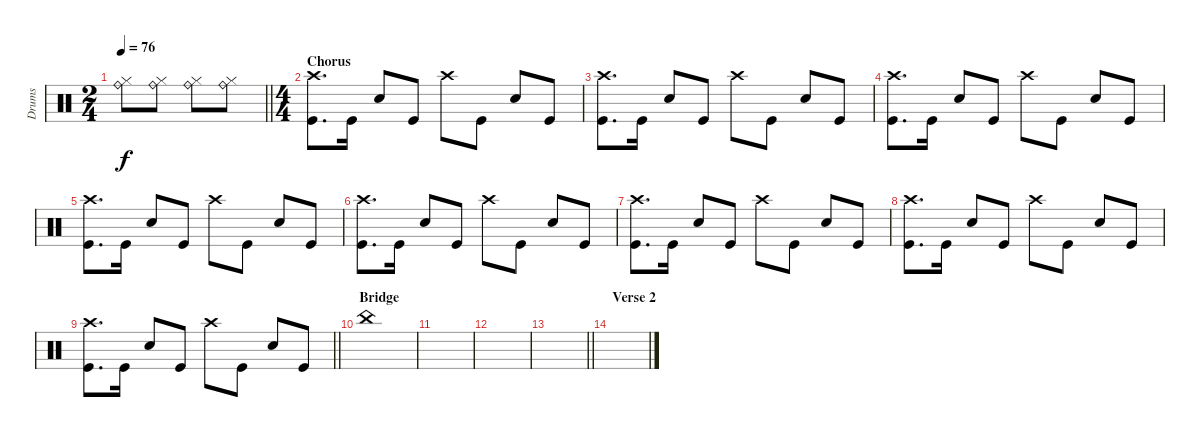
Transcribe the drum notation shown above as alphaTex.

\track ("Drums" "Drums") {instrument percussion}
\staff {score}
\articulation defaults
\ts (2 4)
\tempo 76
\clef neutral
\barLineRight lightlight
\ks c
("Ride (bell)" "Hi-Hat (closed)").8{dy f} ("Ride (bell)" "Hi-Hat (closed)").8 ("Ride (bell)" "Hi-Hat (closed)").8 ("Ride (bell)" "Hi-Hat (closed)").8 |
\ts (4 4)
\section ("" "Chorus")
("Crash high (hit)" "Kick (hit)").8{d} "Kick (hit)".16 "Snare (hit) 2".8 "Kick (hit)".8 "Crash high (hit)".8 "Kick (hit)".8 "Snare (hit) 2".8 "Kick (hit)".8 |
("Crash high (hit)" "Kick (hit)").8{d} "Kick (hit)".16 "Snare (hit) 2".8 "Kick (hit)".8 "Crash high (hit)".8 "Kick (hit)".8 "Snare (hit) 2".8 "Kick (hit)".8 |
("Crash high (hit)" "Kick (hit)").8{d} "Kick (hit)".16 "Snare (hit) 2".8 "Kick (hit)".8 "Crash high (hit)".8 "Kick (hit)".8 "Snare (hit) 2".8 "Kick (hit)".8 |
("Crash high (hit)" "Kick (hit)").8{d} "Kick (hit)".16 "Snare (hit) 2".8 "Kick (hit)".8 "Crash high (hit)".8 "Kick (hit)".8 "Snare (hit) 2".8 "Kick (hit)".8 |
("Crash high (hit)" "Kick (hit)").8{d} "Kick (hit)".16 "Snare (hit) 2".8 "Kick (hit)".8 "Crash high (hit)".8 "Kick (hit)".8 "Snare (hit) 2".8 "Kick (hit)".8 |
("Crash high (hit)" "Kick (hit)").8{d} "Kick (hit)".16 "Snare (hit) 2".8 "Kick (hit)".8 "Crash high (hit)".8 "Kick (hit)".8 "Snare (hit) 2".8 "Kick (hit)".8 |
("Crash high (hit)" "Kick (hit)").8{d} "Kick (hit)".16 "Snare (hit) 2".8 "Kick (hit)".8 "Crash high (hit)".8 "Kick (hit)".8 "Snare (hit) 2".8 "Kick (hit)".8 |
\barLineRight lightlight
("Crash high (hit)" "Kick (hit)").8{d} "Kick (hit)".16 "Snare (hit) 2".8 "Kick (hit)".8 "Crash high (hit)".8 "Kick (hit)".8 "Snare (hit) 2".8 "Kick (hit)".8 |
\section ("" "Bridge")
"China (hit)".1 |
|
|
\barLineRight lightlight
|
\section ("" "Verse 2")
